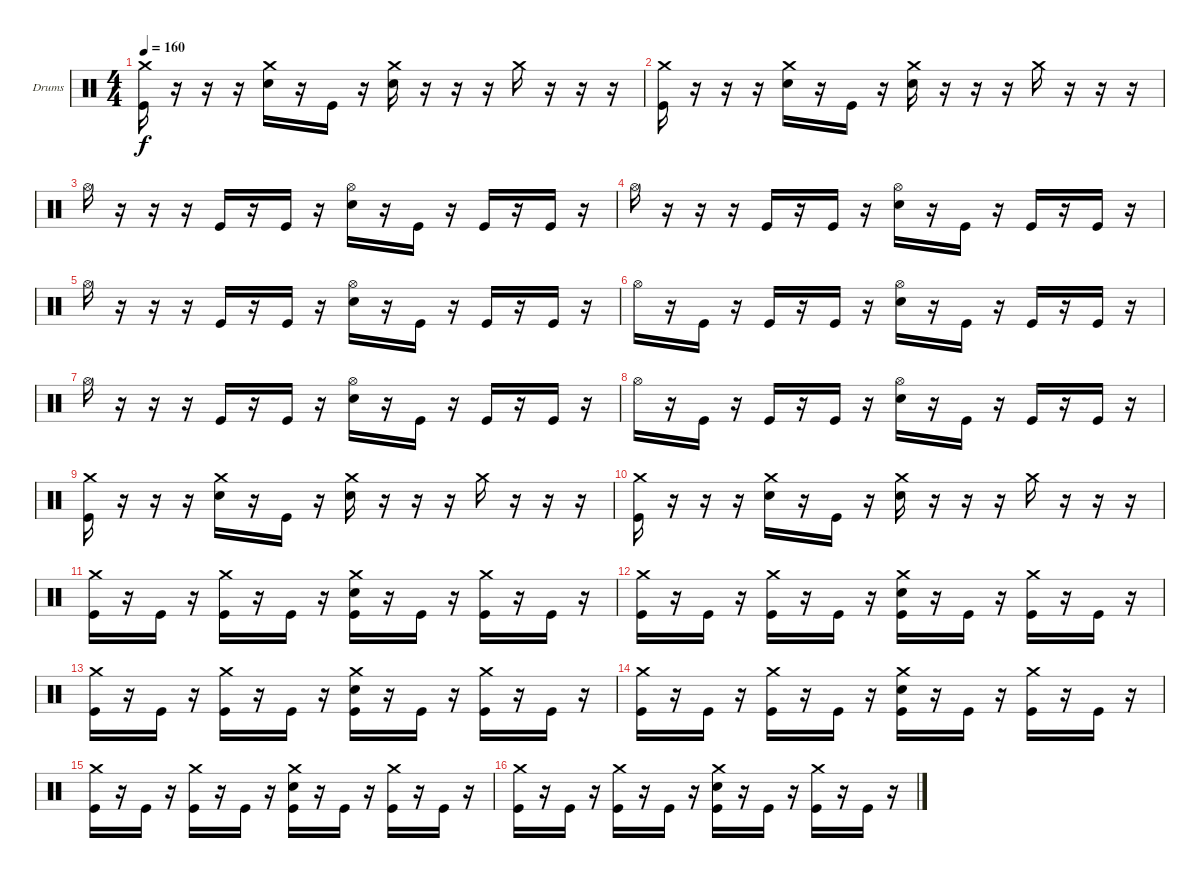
\bracketExtendMode groupsimilarinstruments
\firstSystemTrackNameOrientation horizontal
\otherSystemsTrackNameOrientation horizontal
\track ("Drumkit" "Drums") {instrument percussion}
\staff {score}
\articulation defaults
\ts (4 4)
\tempo 160
\clef neutral
\ks c
("Crash medium (hit)" "Kick (hit)").16{dy f} r.16 r.16 r.16 ("Crash medium (hit)" "Snare (hit) 2").16 r.16 "Kick (hit)".16 r.16 ("Crash medium (hit)" "Snare (hit) 2").16 r.16 r.16 r.16 "Crash medium (hit)".16 r.16 r.16 r.16 |
("Crash medium (hit)" "Kick (hit)").16 r.16 r.16 r.16 ("Crash medium (hit)" "Snare (hit) 2").16 r.16 "Kick (hit)".16 r.16 ("Crash medium (hit)" "Snare (hit) 2").16 r.16 r.16 r.16 "Crash medium (hit)".16 r.16 r.16 r.16 |
"Hi-Hat (open)".16 r.16 r.16 r.16 "Kick (hit)".16 r.16 "Kick (hit)".16 r.16 ("Hi-Hat (open)" "Snare (hit) 2").16 r.16 "Kick (hit)".16 r.16 "Kick (hit)".16 r.16 "Kick (hit)".16 r.16 |
"Hi-Hat (open)".16 r.16 r.16 r.16 "Kick (hit)".16 r.16 "Kick (hit)".16 r.16 ("Hi-Hat (open)" "Snare (hit) 2").16 r.16 "Kick (hit)".16 r.16 "Kick (hit)".16 r.16 "Kick (hit)".16 r.16 |
"Hi-Hat (open)".16 r.16 r.16 r.16 "Kick (hit)".16 r.16 "Kick (hit)".16 r.16 ("Hi-Hat (open)" "Snare (hit) 2").16 r.16 "Kick (hit)".16 r.16 "Kick (hit)".16 r.16 "Kick (hit)".16 r.16 |
"Hi-Hat (open)".16 r.16 "Kick (hit)".16 r.16 "Kick (hit)".16 r.16 "Kick (hit)".16 r.16 ("Hi-Hat (open)" "Snare (hit) 2").16 r.16 "Kick (hit)".16 r.16 "Kick (hit)".16 r.16 "Kick (hit)".16 r.16 |
"Hi-Hat (open)".16 r.16 r.16 r.16 "Kick (hit)".16 r.16 "Kick (hit)".16 r.16 ("Hi-Hat (open)" "Snare (hit) 2").16 r.16 "Kick (hit)".16 r.16 "Kick (hit)".16 r.16 "Kick (hit)".16 r.16 |
"Hi-Hat (open)".16 r.16 "Kick (hit)".16 r.16 "Kick (hit)".16 r.16 "Kick (hit)".16 r.16 ("Hi-Hat (open)" "Snare (hit) 2").16 r.16 "Kick (hit)".16 r.16 "Kick (hit)".16 r.16 "Kick (hit)".16 r.16 |
("Crash medium (hit)" "Kick (hit)").16 r.16 r.16 r.16 ("Crash medium (hit)" "Snare (hit) 2").16 r.16 "Kick (hit)".16 r.16 ("Crash medium (hit)" "Snare (hit) 2").16 r.16 r.16 r.16 "Crash medium (hit)".16 r.16 r.16 r.16 |
("Crash medium (hit)" "Kick (hit)").16 r.16 r.16 r.16 ("Crash medium (hit)" "Snare (hit) 2").16 r.16 "Kick (hit)".16 r.16 ("Crash medium (hit)" "Snare (hit) 2").16 r.16 r.16 r.16 "Crash medium (hit)".16 r.16 r.16 r.16 |
("Crash medium (hit)" "Kick (hit)").16 r.16 "Kick (hit)".16 r.16 ("Crash medium (hit)" "Kick (hit)").16 r.16 "Kick (hit)".16 r.16 ("Crash medium (hit)" "Snare (hit) 2" "Kick (hit)").16 r.16 "Kick (hit)".16 r.16 ("Crash medium (hit)" "Kick (hit)").16 r.16 "Kick (hit)".16 r.16 |
("Crash medium (hit)" "Kick (hit)").16 r.16 "Kick (hit)".16 r.16 ("Crash medium (hit)" "Kick (hit)").16 r.16 "Kick (hit)".16 r.16 ("Crash medium (hit)" "Snare (hit) 2" "Kick (hit)").16 r.16 "Kick (hit)".16 r.16 ("Crash medium (hit)" "Kick (hit)").16 r.16 "Kick (hit)".16 r.16 |
("Crash medium (hit)" "Kick (hit)").16 r.16 "Kick (hit)".16 r.16 ("Crash medium (hit)" "Kick (hit)").16 r.16 "Kick (hit)".16 r.16 ("Crash medium (hit)" "Snare (hit) 2" "Kick (hit)").16 r.16 "Kick (hit)".16 r.16 ("Crash medium (hit)" "Kick (hit)").16 r.16 "Kick (hit)".16 r.16 |
("Crash medium (hit)" "Kick (hit)").16 r.16 "Kick (hit)".16 r.16 ("Crash medium (hit)" "Kick (hit)").16 r.16 "Kick (hit)".16 r.16 ("Crash medium (hit)" "Snare (hit) 2" "Kick (hit)").16 r.16 "Kick (hit)".16 r.16 ("Crash medium (hit)" "Kick (hit)").16 r.16 "Kick (hit)".16 r.16 |
("Crash medium (hit)" "Kick (hit)").16 r.16 "Kick (hit)".16 r.16 ("Crash medium (hit)" "Kick (hit)").16 r.16 "Kick (hit)".16 r.16 ("Crash medium (hit)" "Snare (hit) 2" "Kick (hit)").16 r.16 "Kick (hit)".16 r.16 ("Crash medium (hit)" "Kick (hit)").16 r.16 "Kick (hit)".16 r.16 |
("Crash medium (hit)" "Kick (hit)").16 r.16 "Kick (hit)".16 r.16 ("Crash medium (hit)" "Kick (hit)").16 r.16 "Kick (hit)".16 r.16 ("Crash medium (hit)" "Snare (hit) 2" "Kick (hit)").16 r.16 "Kick (hit)".16 r.16 ("Crash medium (hit)" "Kick (hit)").16 r.16 "Kick (hit)".16 r.16
